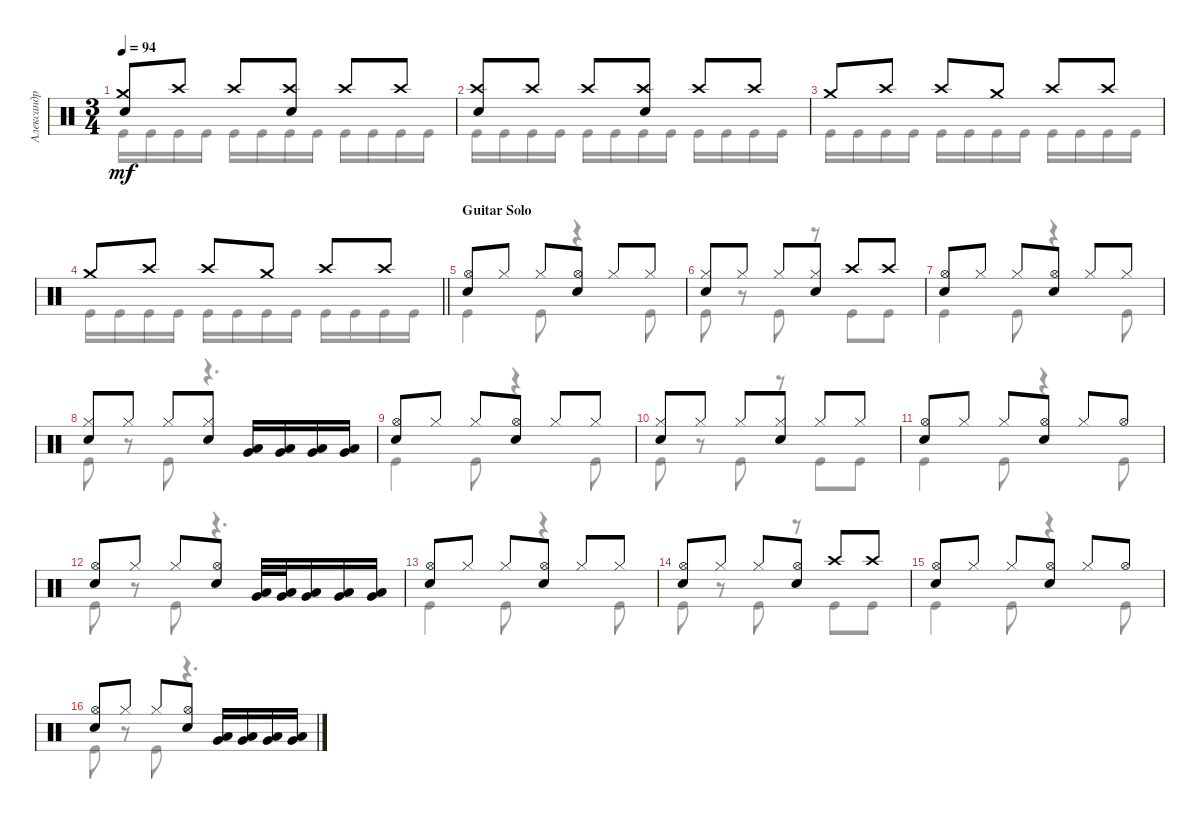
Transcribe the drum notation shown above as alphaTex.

\track ("Александр Манякин" "Александр ") {instrument percussion}
\staff {score}
\articulation defaults
\voice
\ts (3 4)
\tempo 94
\clef neutral
\ks c
("Snare (hit) 2" "Crash medium (hit)").8{dy mf} "Crash high (hit)".8 "Crash high (hit)".8 ("Snare (hit) 2" "Crash high (hit)").8 "Crash high (hit)".8 "Crash high (hit)".8 |
("Snare (hit) 2" "Crash high (hit)").8 "Crash high (hit)".8 "Crash high (hit)".8 ("Snare (hit) 2" "Crash high (hit)").8 "Crash high (hit)".8 "Crash high (hit)".8 |
"Crash medium (hit)".8 "Crash high (hit)".8 "Crash high (hit)".8 "Crash medium (hit)".8 "Crash high (hit)".8 "Crash high (hit)".8 |
\barLineRight lightlight "Crash medium (hit)".8 "Crash high (hit)".8 "Crash high (hit)".8 "Crash medium (hit)".8 "Crash high (hit)".8 "Crash high (hit)".8
|
\section ("" "Guitar Solo")
("Snare (hit) 2" "Hi-Hat (open)").8 "Hi-Hat (closed)".8 "Hi-Hat (closed)".8 ("Snare (hit) 2" "Hi-Hat (open)").8 "Hi-Hat (closed)".8 "Hi-Hat (closed)".8 |
("Hi-Hat (closed)" "Snare (hit) 2").8 "Hi-Hat (closed)".8 "Hi-Hat (closed)".8 ("Hi-Hat (closed)" "Snare (hit) 2").8 "Crash high (hit)".8 "Crash high (hit)".8 |
("Snare (hit) 2" "Hi-Hat (open)").8 "Hi-Hat (closed)".8 "Hi-Hat (closed)".8 ("Snare (hit) 2" "Hi-Hat (open)").8 "Hi-Hat (closed)".8 "Hi-Hat (closed)".8 |
("Snare (hit) 2" "Hi-Hat (closed)").8 "Hi-Hat (closed)".8 "Hi-Hat (closed)".8 ("Hi-Hat (closed)" "Snare (hit) 2").8 ("Very Low Tom (hit)" "Low Tom (hit)").16 ("Very Low Tom (hit)" "Low Tom (hit)").16 ("Low Tom (hit)" "Very Low Tom (hit)").16 ("Low Tom (hit)" "Very Low Tom (hit)").16 |
("Snare (hit) 2" "Hi-Hat (open)").8 "Hi-Hat (closed)".8 "Hi-Hat (closed)".8 ("Snare (hit) 2" "Hi-Hat (open)").8 "Hi-Hat (closed)".8 "Hi-Hat (closed)".8 |
("Hi-Hat (closed)" "Snare (hit) 2").8 "Hi-Hat (closed)".8 "Hi-Hat (closed)".8 ("Hi-Hat (closed)" "Snare (hit) 2").8 "Hi-Hat (closed)".8 "Hi-Hat (closed)".8 |
("Snare (hit) 2" "Hi-Hat (open)").8 "Hi-Hat (closed)".8 "Hi-Hat (closed)".8 ("Snare (hit) 2" "Hi-Hat (open)").8 "Hi-Hat (closed)".8 "Hi-Hat (open)".8 |
("Snare (hit) 2" "Hi-Hat (open)").8 "Hi-Hat (closed)".8 "Hi-Hat (closed)".8 ("Hi-Hat (open)" "Snare (hit) 2").8 ("Very Low Tom (hit)" "Low Tom (hit)").32 ("Very Low Tom (hit)" "Low Tom (hit)").32 ("Low Tom (hit)" "Very Low Tom (hit)").16 ("Low Tom (hit)" "Very Low Tom (hit)").16 ("Low Tom (hit)" "Very Low Tom (hit)").16 |
("Snare (hit) 2" "Hi-Hat (open)").8 "Hi-Hat (closed)".8 "Hi-Hat (closed)".8 ("Snare (hit) 2" "Hi-Hat (open)").8 "Hi-Hat (closed)".8 "Hi-Hat (closed)".8 |
("Hi-Hat (open)" "Snare (hit) 2").8 "Hi-Hat (closed)".8 "Hi-Hat (closed)".8 ("Snare (hit) 2" "Hi-Hat (open)").8 "Crash high (hit)".8 "Crash high (hit)".8 |
("Snare (hit) 2" "Hi-Hat (open)").8 "Hi-Hat (closed)".8 "Hi-Hat (closed)".8 ("Snare (hit) 2" "Hi-Hat (open)").8 "Hi-Hat (closed)".8 "Hi-Hat (open)".8 |
("Snare (hit) 2" "Hi-Hat (open)").8 "Hi-Hat (closed)".8 "Hi-Hat (closed)".8 ("Hi-Hat (open)" "Snare (hit) 2").8 ("Very Low Tom (hit)" "Low Tom (hit)").16 ("Low Tom (hit)" "Very Low Tom (hit)").16 ("Low Tom (hit)" "Very Low Tom (hit)").16 ("Low Tom (hit)" "Very Low Tom (hit)").16
\voice
\clef neutral
\ottava regular
\simile none
\ks c "Kick (hit)".16{dy mf} "Kick (hit)".16 "Kick (hit)".16 "Kick (hit)".16 "Kick (hit)".16 "Kick (hit)".16 "Kick (hit)".16 "Kick (hit)".16 "Kick (hit)".16 "Kick (hit)".16 "Kick (hit)".16 "Kick (hit)".16
|
"Kick (hit)".16 "Kick (hit)".16 "Kick (hit)".16 "Kick (hit)".16 "Kick (hit)".16 "Kick (hit)".16 "Kick (hit)".16 "Kick (hit)".16 "Kick (hit)".16 "Kick (hit)".16 "Kick (hit)".16 "Kick (hit)".16 |
"Kick (hit)".16 "Kick (hit)".16 "Kick (hit)".16 "Kick (hit)".16 "Kick (hit)".16 "Kick (hit)".16 "Kick (hit)".16 "Kick (hit)".16 "Kick (hit)".16 "Kick (hit)".16 "Kick (hit)".16 "Kick (hit)".16 |
\barLineRight lightlight "Kick (hit)".16 "Kick (hit)".16 "Kick (hit)".16 "Kick (hit)".16 "Kick (hit)".16 "Kick (hit)".16 "Kick (hit)".16 "Kick (hit)".16 "Kick (hit)".16 "Kick (hit)".16 "Kick (hit)".16 "Kick (hit)".16
|
"Kick (hit)".4 "Kick (hit)".8 r.4 "Kick (hit)".8 |
"Kick (hit)".8 r.8 "Kick (hit)".8 r.8 "Kick (hit)".8 "Kick (hit)".8 |
"Kick (hit)".4 "Kick (hit)".8 r.4 "Kick (hit)".8 |
"Kick (hit)".8 r.8 "Kick (hit)".8 r.4{d} |
"Kick (hit)".4 "Kick (hit)".8 r.4 "Kick (hit)".8 |
"Kick (hit)".8 r.8 "Kick (hit)".8 r.8 "Kick (hit)".8 "Kick (hit)".8 |
"Kick (hit)".4 "Kick (hit)".8 r.4 "Kick (hit)".8 |
"Kick (hit)".8 r.8 "Kick (hit)".8 r.4{d} |
"Kick (hit)".4 "Kick (hit)".8 r.4 "Kick (hit)".8 |
"Kick (hit)".8 r.8 "Kick (hit)".8 r.8 "Kick (hit)".8 "Kick (hit)".8 |
"Kick (hit)".4 "Kick (hit)".8 r.4 "Kick (hit)".8 |
"Kick (hit)".8 r.8 "Kick (hit)".8 r.4{d}
